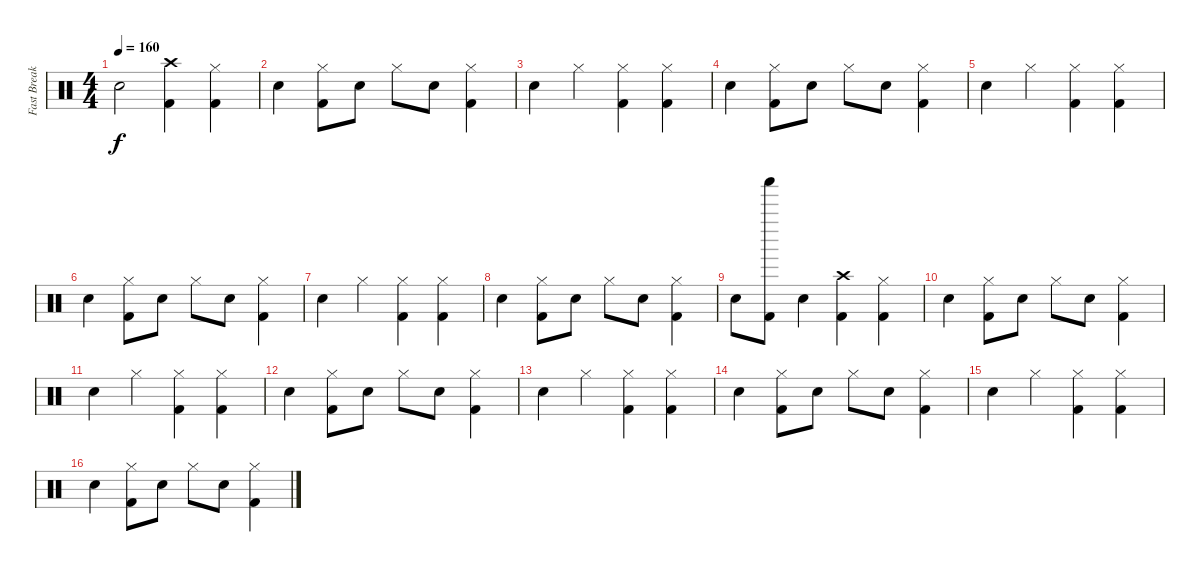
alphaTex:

\track ("Fast Break Drums" "Fast Break") {instrument percussion}
\staff {score}
\articulation defaults
\ts (4 4)
\tempo 160
\clef neutral
\ks c "Snare (hit) 2".2{dy f}
("Kick (hit) 2" "Crash high (hit)").4 ("Kick (hit) 2" "Hi-Hat (closed)").4 |
"Snare (hit) 2".4 ("Kick (hit) 2" "Hi-Hat (closed)").8 "Electric Snare (hit)".8 "Hi-Hat (closed)".8 "Electric Snare (hit)".8 ("Kick (hit) 2" "Hi-Hat (closed)").4 |
"Snare (hit) 2".4 "Hi-Hat (closed)".4 ("Kick (hit) 2" "Hi-Hat (closed)").4 ("Kick (hit) 2" "Hi-Hat (closed)").4 |
"Snare (hit) 2".4 ("Kick (hit) 2" "Hi-Hat (closed)").8 "Electric Snare (hit)".8 "Hi-Hat (closed)".8 "Electric Snare (hit)".8 ("Kick (hit) 2" "Hi-Hat (closed)").4 |
"Snare (hit) 2".4 "Hi-Hat (closed)".4 ("Kick (hit) 2" "Hi-Hat (closed)").4 ("Kick (hit) 2" "Hi-Hat (closed)").4 |
"Snare (hit) 2".4 ("Kick (hit) 2" "Hi-Hat (closed)").8 "Electric Snare (hit)".8 "Hi-Hat (closed)".8 "Electric Snare (hit)".8 ("Kick (hit) 2" "Hi-Hat (closed)").4 |
"Snare (hit) 2".4 "Hi-Hat (closed)".4 ("Kick (hit) 2" "Hi-Hat (closed)").4 ("Kick (hit) 2" "Hi-Hat (closed)").4 |
"Snare (hit) 2".4 ("Kick (hit) 2" "Hi-Hat (closed)").8 "Electric Snare (hit)".8 "Hi-Hat (closed)".8 "Electric Snare (hit)".8 ("Kick (hit) 2" "Hi-Hat (closed)").4 |
"Snare (hit) 2".8 ("Kick (hit) 2" "Shaker (hit)").8 "Snare (hit) 2".4 ("Kick (hit) 2" "Crash high (hit)").4 ("Kick (hit) 2" "Hi-Hat (closed)").4 |
"Snare (hit) 2".4 ("Kick (hit) 2" "Hi-Hat (closed)").8 "Electric Snare (hit)".8 "Hi-Hat (closed)".8 "Electric Snare (hit)".8 ("Kick (hit) 2" "Hi-Hat (closed)").4 |
"Snare (hit) 2".4 "Hi-Hat (closed)".4 ("Kick (hit) 2" "Hi-Hat (closed)").4 ("Kick (hit) 2" "Hi-Hat (closed)").4 |
"Snare (hit) 2".4 ("Kick (hit) 2" "Hi-Hat (closed)").8 "Electric Snare (hit)".8 "Hi-Hat (closed)".8 "Electric Snare (hit)".8 ("Kick (hit) 2" "Hi-Hat (closed)").4 |
"Snare (hit) 2".4 "Hi-Hat (closed)".4 ("Kick (hit) 2" "Hi-Hat (closed)").4 ("Kick (hit) 2" "Hi-Hat (closed)").4 |
"Snare (hit) 2".4 ("Kick (hit) 2" "Hi-Hat (closed)").8 "Electric Snare (hit)".8 "Hi-Hat (closed)".8 "Electric Snare (hit)".8 ("Kick (hit) 2" "Hi-Hat (closed)").4 |
"Snare (hit) 2".4 "Hi-Hat (closed)".4 ("Kick (hit) 2" "Hi-Hat (closed)").4 ("Kick (hit) 2" "Hi-Hat (closed)").4 |
"Snare (hit) 2".4 ("Kick (hit) 2" "Hi-Hat (closed)").8 "Electric Snare (hit)".8 "Hi-Hat (closed)".8 "Electric Snare (hit)".8 ("Kick (hit) 2" "Hi-Hat (closed)").4
